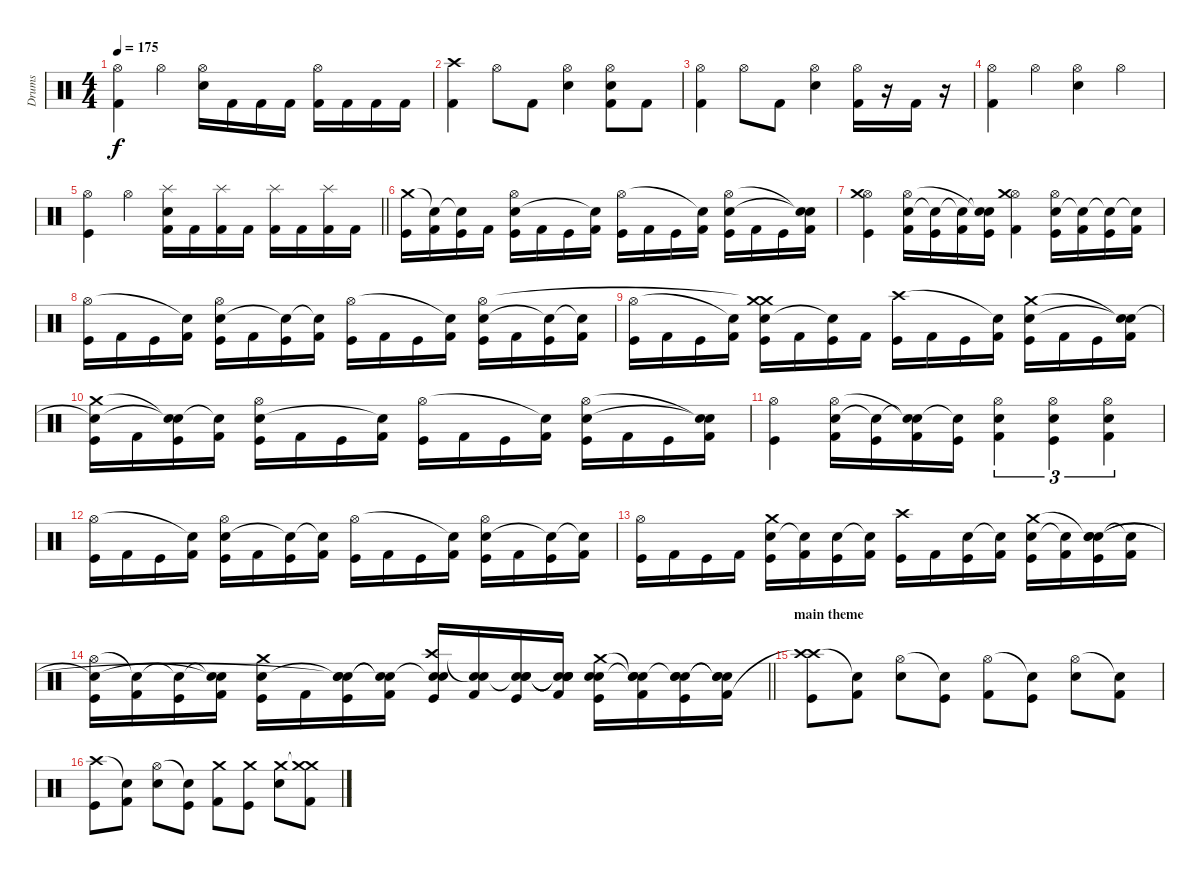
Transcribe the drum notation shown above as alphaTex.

\track ("Drums" "Drums") {instrument percussion}
\staff {score}
\articulation defaults
\ts (4 4)
\tempo 175
\clef neutral
\ks c
("Hi-Hat (open)" "Kick (hit) 2").4{dy f} "Hi-Hat (open)".4 ("Hi-Hat (open)" "Snare (hit) 2").16 "Kick (hit) 2".16 "Kick (hit) 2".16 "Kick (hit) 2".16 ("Hi-Hat (open)" "Kick (hit) 2").16 "Kick (hit) 2".16 "Kick (hit) 2".16 "Kick (hit) 2".16 |
("Kick (hit) 2" "Crash high (hit)").4 "Hi-Hat (open)".8 "Kick (hit) 2".8 ("Hi-Hat (open)" "Snare (hit) 2").4 ("Hi-Hat (open)" "Kick (hit) 2" "Snare (hit)").8 "Kick (hit) 2".8 |
("Hi-Hat (open)" "Kick (hit) 2").4 "Hi-Hat (open)".8 "Kick (hit) 2".8 ("Hi-Hat (open)" "Snare (hit) 2").4 ("Hi-Hat (open)" "Kick (hit) 2").16 r.16 "Kick (hit) 2".16 r.16 |
("Hi-Hat (open)" "Kick (hit) 2").4 "Hi-Hat (open)".4 ("Hi-Hat (open)" "Snare (hit) 2").4 "Hi-Hat (open)".4 |
\barLineRight lightlight
("Hi-Hat (open)" "Kick (hit)").4 "Hi-Hat (open)".4 ("Splash (hit)" "Snare (hit) 2" "Kick (hit) 2").16 "Kick (hit) 2".16 ("Splash (hit)" "Kick (hit) 2").16 "Kick (hit) 2".16 ("Splash (hit)" "Kick (hit) 2").16 "Kick (hit) 2".16 ("Splash (hit)" "Kick (hit) 2").16 "Kick (hit) 2".16 |
\section ("" "")
("Kick (hit)" "Crash medium (hit)").16 ("Kick (hit) 2" "Snare (hit)"{t}).16 ("Kick (hit)" "Snare (hit)"{t}).16 "Kick (hit) 2".16 ("Kick (hit)" "Snare (hit) 2" "Hi-Hat (open)").16 "Kick (hit) 2".16 "Kick (hit)".16 ("Kick (hit) 2" "Snare (hit)"{t}).16 ("Kick (hit)" "Hi-Hat (open)").16 "Kick (hit) 2".16 "Kick (hit)".16 ("Kick (hit) 2" "Snare (hit)"{t}).16 ("Kick (hit)" "Snare (hit) 2" "Hi-Hat (open)").16 "Kick (hit) 2".16 "Kick (hit)".16 ("Kick (hit) 2" "Snare (hit)"{t} "Snare (hit)"{t}).16 |
("Kick (hit)" "Hi-Hat (open)" "Crash medium (hit)").4 ("Kick (hit) 2" "Snare (hit) 2" "Hi-Hat (open)").16 ("Kick (hit)" "Snare (hit)"{t}).16 ("Kick (hit) 2" "Snare (hit)"{t}).16 ("Kick (hit)" "Snare (hit)"{t} "Snare (hit)"{t}).16 ("Kick (hit) 2" "Hi-Hat (open)" "Crash medium (hit)").4 ("Kick (hit)" "Snare (hit) 2" "Hi-Hat (open)").16 ("Kick (hit) 2" "Snare (hit)"{t}).16 ("Kick (hit)" "Snare (hit)"{t}).16 ("Kick (hit) 2" "Snare (hit)"{t}).16 |
("Kick (hit)" "Hi-Hat (open)").16 "Kick (hit) 2".16 "Kick (hit)".16 ("Kick (hit) 2" "Snare (hit)"{t}).16 ("Kick (hit)" "Snare (hit) 2" "Hi-Hat (open)").16 "Kick (hit) 2".16 ("Kick (hit)" "Snare (hit)"{t}).16 ("Kick (hit) 2" "Snare (hit)"{t}).16 ("Kick (hit)" "Hi-Hat (open)").16 "Kick (hit) 2".16 "Kick (hit)".16 ("Kick (hit) 2" "Snare (hit)"{t}).16 ("Kick (hit)" "Snare (hit) 2" "Hi-Hat (open)").16 "Kick (hit) 2".16 ("Kick (hit)" "Snare (hit)"{t}).16 ("Kick (hit) 2" "Snare (hit)"{t}).16 |
("Kick (hit)" "Hi-Hat (open)").16 "Kick (hit) 2".16 "Kick (hit)".16 ("Kick (hit) 2" "Snare (hit)"{t}).16 ("Kick (hit)" "Snare (hit) 2" "Crash medium (hit)"{t} "Crash medium (hit)").16 "Kick (hit) 2".16 ("Kick (hit)" "Snare (hit)"{t}).16 "Kick (hit) 2".16 ("Kick (hit)" "Crash high (hit)").16 "Kick (hit) 2".16 "Kick (hit)".16 ("Kick (hit) 2" "Snare (hit)"{t}).16 ("Kick (hit)" "Snare (hit) 2" "Crash medium (hit)").16 "Kick (hit) 2".16 "Kick (hit)".16 ("Kick (hit) 2" "Snare (hit)"{t} "Snare (hit)"{t}).16 |
("Kick (hit)" "Snare (hit)"{t} "Crash medium (hit)").16 "Kick (hit) 2".16 ("Kick (hit)" "Snare (hit)"{t} "Snare (hit)"{t}).16 ("Kick (hit) 2" "Snare (hit)"{t}).16 ("Kick (hit)" "Snare (hit) 2" "Hi-Hat (open)").16 "Kick (hit) 2".16 "Kick (hit)".16 ("Kick (hit) 2" "Snare (hit)"{t}).16 ("Kick (hit)" "Hi-Hat (open)").16 "Kick (hit) 2".16 "Kick (hit)".16 ("Kick (hit) 2" "Snare (hit)"{t}).16 ("Kick (hit)" "Snare (hit) 2" "Hi-Hat (open)").16 "Kick (hit) 2".16 "Kick (hit)".16 ("Kick (hit) 2" "Snare (hit)"{t} "Snare (hit)"{t}).16 |
("Kick (hit)" "Hi-Hat (open)").4 ("Kick (hit) 2" "Snare (hit) 2" "Hi-Hat (open)").16 ("Kick (hit)" "Snare (hit)"{t}).16 ("Kick (hit) 2" "Snare (hit)"{t} "Snare (hit)"{t}).16 ("Kick (hit)" "Snare (hit)"{t}).16 ("Kick (hit) 2" "Snare (hit) 2" "Hi-Hat (open)").4{tu (3 2)} ("Kick (hit)" "Snare (hit) 2" "Hi-Hat (open)").4{tu (3 2)} ("Kick (hit) 2" "Snare (hit) 2" "Hi-Hat (open)").4{tu (3 2)} |
("Kick (hit)" "Hi-Hat (open)").16 "Kick (hit) 2".16 "Kick (hit)".16 ("Kick (hit) 2" "Snare (hit)"{t}).16 ("Kick (hit)" "Snare (hit) 2" "Hi-Hat (open)").16 "Kick (hit) 2".16 ("Kick (hit)" "Snare (hit)"{t}).16 ("Kick (hit) 2" "Snare (hit)"{t}).16 ("Kick (hit)" "Hi-Hat (open)").16 "Kick (hit) 2".16 "Kick (hit)".16 ("Kick (hit) 2" "Snare (hit)"{t}).16 ("Kick (hit)" "Snare (hit) 2" "Hi-Hat (open)").16 "Kick (hit) 2".16 ("Kick (hit)" "Snare (hit)"{t}).16 ("Kick (hit) 2" "Snare (hit)"{t}).16 |
("Kick (hit)" "Hi-Hat (open)").16 "Kick (hit) 2".16 "Kick (hit)".16 "Kick (hit) 2".16 ("Kick (hit)" "Snare (hit) 2" "Crash medium (hit)").16 ("Kick (hit) 2" "Snare (hit)"{t}).16 ("Kick (hit)" "Snare (hit) 2").16 ("Kick (hit) 2" "Snare (hit)"{t}).16 ("Kick (hit)" "Crash high (hit)").16 "Kick (hit) 2".16 ("Kick (hit)" "Snare (hit) 2").16 ("Kick (hit) 2" "Snare (hit)"{t}).16 ("Kick (hit)" "Snare (hit) 2" "Crash medium (hit)").16 ("Kick (hit) 2" "Snare (hit)"{t}).16 ("Kick (hit)" "Snare (hit) 2" "Snare (hit)"{t} "Snare (hit)").16 ("Kick (hit) 2" "Snare (hit)"{t}).16 |
\barLineRight lightlight
("Kick (hit)" "Hi-Hat (open)" "Snare (hit)"{t}).16 ("Kick (hit) 2" "Snare (hit)"{t}).16 ("Kick (hit)" "Snare (hit)"{t}).16 ("Kick (hit) 2" "Snare (hit)"{t} "Snare (hit)"{t}).16 ("Kick (hit)" "Snare (hit) 2" "Crash medium (hit)").16 "Kick (hit) 2".16 ("Kick (hit)" "Snare (hit)"{t} "Snare (hit) 2" "Snare (hit)"{t}).16 ("Kick (hit) 2" "Snare (hit)"{t} "Snare (hit)"{t}).16 ("Kick (hit)" "Crash high (hit)" "Snare (hit)"{t} "Snare (hit) 2").16 ("Kick (hit) 2" "Snare (hit)"{t} "Snare (hit) 2").16 ("Kick (hit)" "Snare (hit) 2" "Snare (hit)"{t} "Snare (hit) 2").16 ("Kick (hit) 2" "Snare (hit)"{t} "Snare (hit)"{t} "Snare (hit)"{t} "Snare (hit) 2").16 ("Kick (hit)" "Snare (hit) 2" "Crash medium (hit)" "Snare (hit) 2").16 ("Kick (hit) 2" "Snare (hit)"{t} "Snare (hit)"{t} "Snare (hit) 2").16 ("Kick (hit)" "Snare (hit) 2" "Snare (hit)"{t} "Snare (hit) 2").16 ("Kick (hit) 2" "Snare (hit)"{t} "Snare (hit)"{t} "Snare (hit) 2").16 |
\section ("" "main theme")
("Crash high (hit)"{t} "Crash high (hit)" "Kick (hit)").8 ("Snare (hit)"{t} "Kick (hit) 2").8 ("Hi-Hat (open)" "Snare (hit) 2").8 ("Snare (hit)"{t} "Kick (hit)").8 ("Hi-Hat (open)" "Kick (hit) 2").8 ("Snare (hit)"{t} "Kick (hit)").8 ("Hi-Hat (open)" "Snare (hit) 2").8 ("Snare (hit)"{t} "Kick (hit) 2").8 |
("Crash high (hit)" "Kick (hit)").8 ("Snare (hit)"{t} "Kick (hit) 2").8 ("Hi-Hat (open)" "Snare (hit) 2").8 ("Snare (hit)"{t} "Kick (hit)").8 ("Crash medium (hit)" "Kick (hit) 2").8 ("Crash medium (hit)" "Kick (hit)").8 ("Crash medium (hit)" "Snare (hit) 2").8 ("Crash medium (hit)"{t} "Crash medium (hit)" "Kick (hit) 2").8
